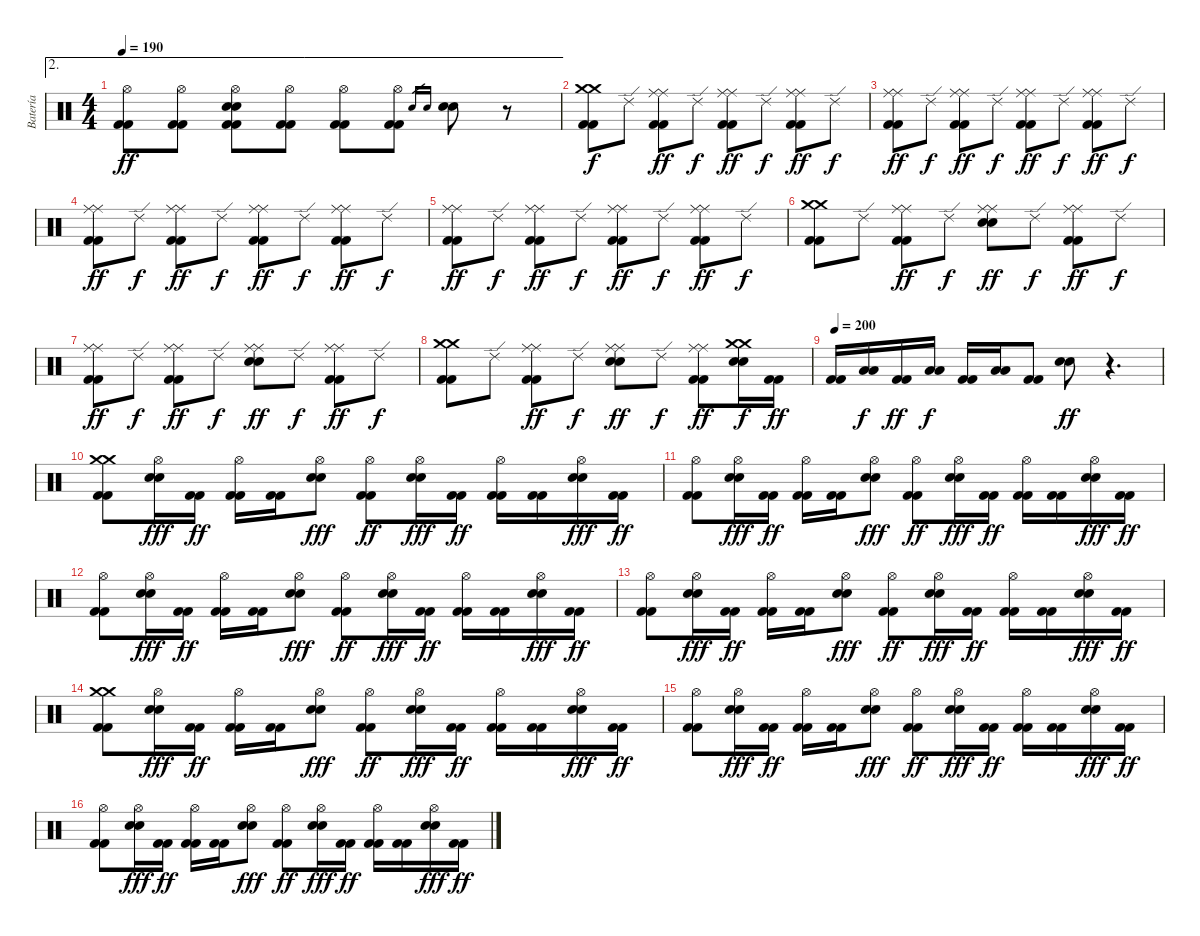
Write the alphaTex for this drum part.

\track ("Batería" "Batería") {instrument percussion}
\staff {score}
\articulation defaults
\ae 2
\ts (4 4)
\tempo 190
\clef neutral
\ks c
("Hi-Hat (open)" "Kick (hit) 2" "Kick (hit) 2").8{dy ff} ("Hi-Hat (open)" "Kick (hit) 2" "Kick (hit) 2").8 ("Hi-Hat (open)" "Electric Snare (hit)" "Electric Snare (hit)" "Kick (hit) 2" "Kick (hit) 2").8 ("Hi-Hat (open)" "Kick (hit) 2" "Kick (hit) 2").8 ("Hi-Hat (open)" "Kick (hit) 2" "Kick (hit) 2").8 ("Hi-Hat (open)" "Kick (hit) 2" "Kick (hit) 2").8 "Electric Snare (hit)".16{gr} "Electric Snare (hit)".16{gr} ("Electric Snare (hit)" "Electric Snare (hit)").8 r.8 |
("Crash medium (hit)" "Crash medium (hit)" "Kick (hit) 2" "Kick (hit) 2").8{dy f} "Ride (edge) 2".8 ("Ride (middle)" "Ride (middle)" "Kick (hit) 2" "Kick (hit) 2").8{dy ff} "Ride (edge) 2".8{dy f} ("Ride (middle)" "Ride (middle)" "Kick (hit) 2" "Kick (hit) 2").8{dy ff} "Ride (edge) 2".8{dy f} ("Ride (middle)" "Ride (middle)" "Kick (hit) 2" "Kick (hit) 2").8{dy ff} "Ride (edge) 2".8{dy f} |
("Ride (middle)" "Ride (middle)" "Kick (hit) 2" "Kick (hit) 2").8{dy ff} "Ride (edge) 2".8{dy f} ("Ride (middle)" "Ride (middle)" "Kick (hit) 2" "Kick (hit) 2").8{dy ff} "Ride (edge) 2".8{dy f} ("Ride (middle)" "Ride (middle)" "Kick (hit) 2" "Kick (hit) 2").8{dy ff} "Ride (edge) 2".8{dy f} ("Ride (middle)" "Ride (middle)" "Kick (hit) 2" "Kick (hit) 2").8{dy ff} "Ride (edge) 2".8{dy f} |
("Ride (middle)" "Ride (middle)" "Kick (hit) 2" "Kick (hit) 2").8{dy ff} "Ride (edge) 2".8{dy f} ("Ride (middle)" "Ride (middle)" "Kick (hit) 2" "Kick (hit) 2").8{dy ff} "Ride (edge) 2".8{dy f} ("Ride (middle)" "Ride (middle)" "Kick (hit) 2" "Kick (hit) 2").8{dy ff} "Ride (edge) 2".8{dy f} ("Ride (middle)" "Ride (middle)" "Kick (hit) 2" "Kick (hit) 2").8{dy ff} "Ride (edge) 2".8{dy f} |
("Ride (middle)" "Ride (middle)" "Kick (hit) 2" "Kick (hit) 2").8{dy ff} "Ride (edge) 2".8{dy f} ("Ride (middle)" "Ride (middle)" "Kick (hit) 2" "Kick (hit) 2").8{dy ff} "Ride (edge) 2".8{dy f} ("Ride (middle)" "Ride (middle)" "Kick (hit) 2" "Kick (hit) 2").8{dy ff} "Ride (edge) 2".8{dy f} ("Ride (middle)" "Ride (middle)" "Kick (hit) 2" "Kick (hit) 2").8{dy ff} "Ride (edge) 2".8{dy f} |
("Crash medium (hit)" "Crash medium (hit)" "Kick (hit) 2" "Kick (hit) 2").8 "Ride (edge) 2".8 ("Ride (middle)" "Ride (middle)" "Kick (hit) 2" "Kick (hit) 2").8{dy ff} "Ride (edge) 2".8{dy f} ("Ride (middle)" "Ride (middle)" "Electric Snare (hit)" "Electric Snare (hit)").8{dy ff} "Ride (edge) 2".8{dy f} ("Ride (middle)" "Ride (middle)" "Kick (hit) 2" "Kick (hit) 2").8{dy ff} "Ride (edge) 2".8{dy f} |
("Ride (middle)" "Ride (middle)" "Kick (hit) 2" "Kick (hit) 2").8{dy ff} "Ride (edge) 2".8{dy f} ("Ride (middle)" "Ride (middle)" "Kick (hit) 2" "Kick (hit) 2").8{dy ff} "Ride (edge) 2".8{dy f} ("Ride (middle)" "Ride (middle)" "Electric Snare (hit)" "Electric Snare (hit)").8{dy ff} "Ride (edge) 2".8{dy f} ("Ride (middle)" "Ride (middle)" "Kick (hit) 2" "Kick (hit) 2").8{dy ff} "Ride (edge) 2".8{dy f} |
("Crash medium (hit)" "Crash medium (hit)" "Kick (hit) 2" "Kick (hit) 2").8 "Ride (edge) 2".8 ("Ride (middle)" "Ride (middle)" "Kick (hit) 2" "Kick (hit) 2").8{dy ff} "Ride (edge) 2".8{dy f} ("Ride (middle)" "Ride (middle)" "Electric Snare (hit)" "Electric Snare (hit)").8{dy ff} "Ride (edge) 2".8{dy f} ("Ride (middle)" "Ride (middle)" "Kick (hit) 2" "Kick (hit) 2").8{dy ff} ("Crash medium (hit)" "Crash medium (hit)" "Electric Snare (hit)" "Electric Snare (hit)").16{dy f} ("Kick (hit) 2" "Kick (hit) 2").16{dy ff} |
\tempo 200
("Kick (hit) 2" "Kick (hit) 2").16 ("Low Tom (hit)" "Low Tom (hit)").16{dy f} ("Kick (hit) 2" "Kick (hit) 2").16{dy ff} ("Low Tom (hit)" "Low Tom (hit)").16{dy f} ("Kick (hit) 2" "Kick (hit) 2").16 ("Low Tom (hit)" "Low Tom (hit)").16 ("Kick (hit) 2" "Kick (hit) 2").8 ("Electric Snare (hit)" "Electric Snare (hit)").8{dy ff} r.4{d} |
("Crash medium (hit)" "Crash medium (hit)" "Kick (hit) 2" "Kick (hit) 2").8 ("Hi-Hat (open)" "Electric Snare (hit)" "Electric Snare (hit)").16{dy fff} ("Kick (hit) 2" "Kick (hit) 2").16{dy ff} ("Hi-Hat (open)" "Kick (hit) 2" "Kick (hit) 2").16 ("Kick (hit) 2" "Kick (hit) 2").16 ("Hi-Hat (open)" "Electric Snare (hit)" "Electric Snare (hit)").8{dy fff} ("Hi-Hat (open)" "Kick (hit) 2" "Kick (hit) 2").8{dy ff} ("Hi-Hat (open)" "Electric Snare (hit)" "Electric Snare (hit)").16{dy fff} ("Kick (hit) 2" "Kick (hit) 2").16{dy ff} ("Hi-Hat (open)" "Kick (hit) 2" "Kick (hit) 2").16 ("Kick (hit) 2" "Kick (hit) 2").16 ("Hi-Hat (open)" "Electric Snare (hit)" "Electric Snare (hit)").16{dy fff} ("Kick (hit) 2" "Kick (hit) 2").16{dy ff} |
("Hi-Hat (open)" "Kick (hit) 2" "Kick (hit) 2").8 ("Hi-Hat (open)" "Electric Snare (hit)" "Electric Snare (hit)").16{dy fff} ("Kick (hit) 2" "Kick (hit) 2").16{dy ff} ("Hi-Hat (open)" "Kick (hit) 2" "Kick (hit) 2").16 ("Kick (hit) 2" "Kick (hit) 2").16 ("Hi-Hat (open)" "Electric Snare (hit)" "Electric Snare (hit)").8{dy fff} ("Hi-Hat (open)" "Kick (hit) 2" "Kick (hit) 2").8{dy ff} ("Hi-Hat (open)" "Electric Snare (hit)" "Electric Snare (hit)").16{dy fff} ("Kick (hit) 2" "Kick (hit) 2").16{dy ff} ("Hi-Hat (open)" "Kick (hit) 2" "Kick (hit) 2").16 ("Kick (hit) 2" "Kick (hit) 2").16 ("Hi-Hat (open)" "Electric Snare (hit)" "Electric Snare (hit)").16{dy fff} ("Kick (hit) 2" "Kick (hit) 2").16{dy ff} |
("Hi-Hat (open)" "Kick (hit) 2" "Kick (hit) 2").8 ("Hi-Hat (open)" "Electric Snare (hit)" "Electric Snare (hit)").16{dy fff} ("Kick (hit) 2" "Kick (hit) 2").16{dy ff} ("Hi-Hat (open)" "Kick (hit) 2" "Kick (hit) 2").16 ("Kick (hit) 2" "Kick (hit) 2").16 ("Hi-Hat (open)" "Electric Snare (hit)" "Electric Snare (hit)").8{dy fff} ("Hi-Hat (open)" "Kick (hit) 2" "Kick (hit) 2").8{dy ff} ("Hi-Hat (open)" "Electric Snare (hit)" "Electric Snare (hit)").16{dy fff} ("Kick (hit) 2" "Kick (hit) 2").16{dy ff} ("Hi-Hat (open)" "Kick (hit) 2" "Kick (hit) 2").16 ("Kick (hit) 2" "Kick (hit) 2").16 ("Hi-Hat (open)" "Electric Snare (hit)" "Electric Snare (hit)").16{dy fff} ("Kick (hit) 2" "Kick (hit) 2").16{dy ff} |
("Hi-Hat (open)" "Kick (hit) 2" "Kick (hit) 2").8 ("Hi-Hat (open)" "Electric Snare (hit)" "Electric Snare (hit)").16{dy fff} ("Kick (hit) 2" "Kick (hit) 2").16{dy ff} ("Hi-Hat (open)" "Kick (hit) 2" "Kick (hit) 2").16 ("Kick (hit) 2" "Kick (hit) 2").16 ("Hi-Hat (open)" "Electric Snare (hit)" "Electric Snare (hit)").8{dy fff} ("Hi-Hat (open)" "Kick (hit) 2" "Kick (hit) 2").8{dy ff} ("Hi-Hat (open)" "Electric Snare (hit)" "Electric Snare (hit)").16{dy fff} ("Kick (hit) 2" "Kick (hit) 2").16{dy ff} ("Hi-Hat (open)" "Kick (hit) 2" "Kick (hit) 2").16 ("Kick (hit) 2" "Kick (hit) 2").16 ("Hi-Hat (open)" "Electric Snare (hit)" "Electric Snare (hit)").16{dy fff} ("Kick (hit) 2" "Kick (hit) 2").16{dy ff} |
("Crash medium (hit)" "Crash medium (hit)" "Kick (hit) 2" "Kick (hit) 2").8 ("Hi-Hat (open)" "Electric Snare (hit)" "Electric Snare (hit)").16{dy fff} ("Kick (hit) 2" "Kick (hit) 2").16{dy ff} ("Hi-Hat (open)" "Kick (hit) 2" "Kick (hit) 2").16 ("Kick (hit) 2" "Kick (hit) 2").16 ("Hi-Hat (open)" "Electric Snare (hit)" "Electric Snare (hit)").8{dy fff} ("Hi-Hat (open)" "Kick (hit) 2" "Kick (hit) 2").8{dy ff} ("Hi-Hat (open)" "Electric Snare (hit)" "Electric Snare (hit)").16{dy fff} ("Kick (hit) 2" "Kick (hit) 2").16{dy ff} ("Hi-Hat (open)" "Kick (hit) 2" "Kick (hit) 2").16 ("Kick (hit) 2" "Kick (hit) 2").16 ("Hi-Hat (open)" "Electric Snare (hit)" "Electric Snare (hit)").16{dy fff} ("Kick (hit) 2" "Kick (hit) 2").16{dy ff} |
("Hi-Hat (open)" "Kick (hit) 2" "Kick (hit) 2").8 ("Hi-Hat (open)" "Electric Snare (hit)" "Electric Snare (hit)").16{dy fff} ("Kick (hit) 2" "Kick (hit) 2").16{dy ff} ("Hi-Hat (open)" "Kick (hit) 2" "Kick (hit) 2").16 ("Kick (hit) 2" "Kick (hit) 2").16 ("Hi-Hat (open)" "Electric Snare (hit)" "Electric Snare (hit)").8{dy fff} ("Hi-Hat (open)" "Kick (hit) 2" "Kick (hit) 2").8{dy ff} ("Hi-Hat (open)" "Electric Snare (hit)" "Electric Snare (hit)").16{dy fff} ("Kick (hit) 2" "Kick (hit) 2").16{dy ff} ("Hi-Hat (open)" "Kick (hit) 2" "Kick (hit) 2").16 ("Kick (hit) 2" "Kick (hit) 2").16 ("Hi-Hat (open)" "Electric Snare (hit)" "Electric Snare (hit)").16{dy fff} ("Kick (hit) 2" "Kick (hit) 2").16{dy ff} |
("Hi-Hat (open)" "Kick (hit) 2" "Kick (hit) 2").8 ("Hi-Hat (open)" "Electric Snare (hit)" "Electric Snare (hit)").16{dy fff} ("Kick (hit) 2" "Kick (hit) 2").16{dy ff} ("Hi-Hat (open)" "Kick (hit) 2" "Kick (hit) 2").16 ("Kick (hit) 2" "Kick (hit) 2").16 ("Hi-Hat (open)" "Electric Snare (hit)" "Electric Snare (hit)").8{dy fff} ("Hi-Hat (open)" "Kick (hit) 2" "Kick (hit) 2").8{dy ff} ("Hi-Hat (open)" "Electric Snare (hit)" "Electric Snare (hit)").16{dy fff} ("Kick (hit) 2" "Kick (hit) 2").16{dy ff} ("Hi-Hat (open)" "Kick (hit) 2" "Kick (hit) 2").16 ("Kick (hit) 2" "Kick (hit) 2").16 ("Hi-Hat (open)" "Electric Snare (hit)" "Electric Snare (hit)").16{dy fff} ("Kick (hit) 2" "Kick (hit) 2").16{dy ff}
